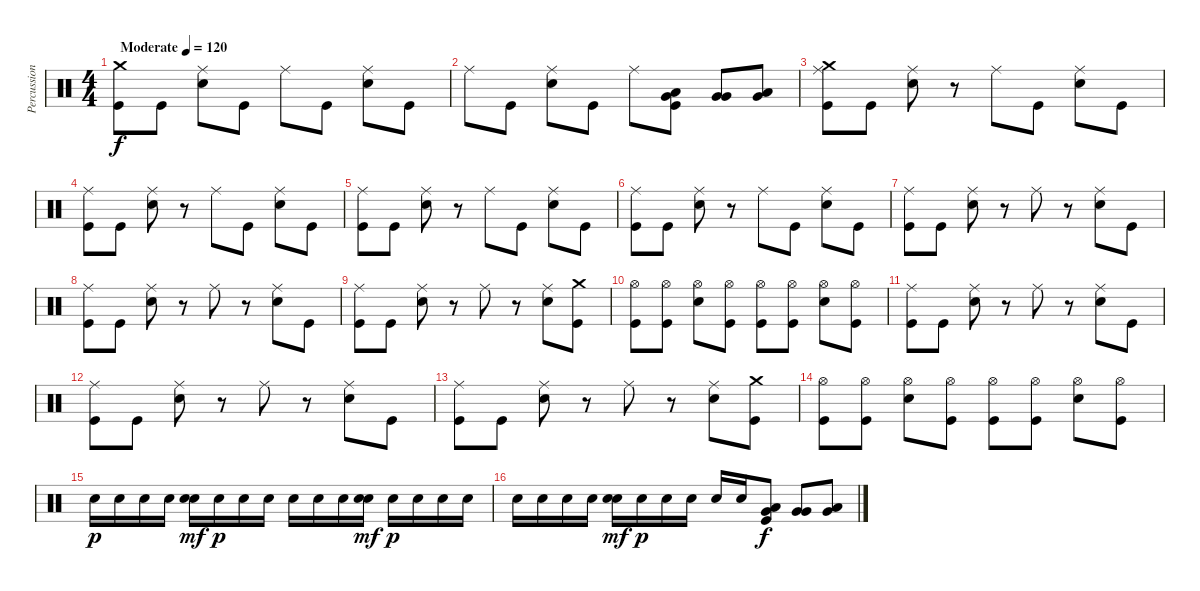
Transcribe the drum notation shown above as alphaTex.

\track ("Percussion" "Percussion") {instrument percussion}
\staff {score}
\articulation defaults
\ts (4 4)
\tempo (120 "Moderate")
\clef neutral
\ks c
("Crash medium (hit)" "Kick (hit)").8{dy f} "Kick (hit)".8 ("Ride (middle)" "Snare (hit) 2").8 "Kick (hit)".8 "Ride (middle)".8 "Kick (hit)".8 ("Ride (middle)" "Snare (hit) 2").8 "Kick (hit)".8 |
"Ride (middle)".8 "Kick (hit)".8 ("Ride (middle)" "Snare (hit) 2").8 "Kick (hit)".8 "Ride (middle)".8 ("Low Tom (hit)" "Very Low Tom (hit)" "Kick (hit)").8 ("Very Low Tom (hit)" "Very Low Tom (hit)").8 ("Very Low Tom (hit)" "Low Floor Tom (hit)").8 |
("Crash medium (hit)" "Ride (middle)" "Kick (hit)").8 "Kick (hit)".8 ("Ride (middle)" "Snare (hit) 2").8 r.8 "Ride (middle)".8 "Kick (hit)".8 ("Ride (middle)" "Snare (hit) 2").8 "Kick (hit)".8 |
("Ride (middle)" "Kick (hit)").8 "Kick (hit)".8 ("Ride (middle)" "Snare (hit) 2").8 r.8 "Ride (middle)".8 "Kick (hit)".8 ("Ride (middle)" "Snare (hit) 2").8 "Kick (hit)".8 |
("Ride (middle)" "Kick (hit)").8 "Kick (hit)".8 ("Ride (middle)" "Snare (hit) 2").8 r.8 "Ride (middle)".8 "Kick (hit)".8 ("Ride (middle)" "Snare (hit) 2").8 "Kick (hit)".8 |
("Ride (middle)" "Kick (hit)").8 "Kick (hit)".8 ("Ride (middle)" "Snare (hit) 2").8 r.8 "Ride (middle)".8 "Kick (hit)".8 ("Ride (middle)" "Snare (hit) 2").8 "Kick (hit)".8 |
("Ride (middle)" "Kick (hit)").8 "Kick (hit)".8 ("Ride (middle)" "Snare (hit) 2").8 r.8 "Ride (middle)".8 r.8 ("Ride (middle)" "Snare (hit) 2").8 "Kick (hit)".8 |
("Ride (middle)" "Kick (hit)").8 "Kick (hit)".8 ("Ride (middle)" "Snare (hit) 2").8 r.8 "Ride (middle)".8 r.8 ("Ride (middle)" "Snare (hit) 2").8 "Kick (hit)".8 |
("Ride (middle)" "Kick (hit)").8 "Kick (hit)".8 ("Ride (middle)" "Snare (hit) 2").8 r.8 "Ride (middle)".8 r.8 ("Ride (middle)" "Snare (hit) 2").8 ("Crash medium (hit)" "Kick (hit)").8 |
("Hi-Hat (open)" "Kick (hit)").8 ("Hi-Hat (open)" "Kick (hit)").8 ("Hi-Hat (open)" "Snare (hit) 2").8 ("Hi-Hat (open)" "Kick (hit)").8 ("Hi-Hat (open)" "Kick (hit)").8 ("Hi-Hat (open)" "Kick (hit)").8 ("Hi-Hat (open)" "Snare (hit) 2").8 ("Hi-Hat (open)" "Kick (hit)").8 |
("Ride (middle)" "Kick (hit)").8 "Kick (hit)".8 ("Ride (middle)" "Snare (hit) 2").8 r.8 "Ride (middle)".8 r.8 ("Ride (middle)" "Snare (hit) 2").8 "Kick (hit)".8 |
("Ride (middle)" "Kick (hit)").8 "Kick (hit)".8 ("Ride (middle)" "Snare (hit) 2").8 r.8 "Ride (middle)".8 r.8 ("Ride (middle)" "Snare (hit) 2").8 "Kick (hit)".8 |
("Ride (middle)" "Kick (hit)").8 "Kick (hit)".8 ("Ride (middle)" "Snare (hit) 2").8 r.8 "Ride (middle)".8 r.8 ("Ride (middle)" "Snare (hit) 2").8 ("Crash medium (hit)" "Kick (hit)").8 |
("Hi-Hat (open)" "Kick (hit)").8 ("Hi-Hat (open)" "Kick (hit)").8 ("Hi-Hat (open)" "Snare (hit) 2").8 ("Hi-Hat (open)" "Kick (hit)").8 ("Hi-Hat (open)" "Kick (hit)").8 ("Hi-Hat (open)" "Kick (hit)").8 ("Hi-Hat (open)" "Snare (hit) 2").8 ("Hi-Hat (open)" "Kick (hit)").8 |
"Snare (hit) 2".16{dy p} "Snare (hit) 2".16 "Snare (hit) 2".16 "Snare (hit) 2".16 ("Snare (hit) 2" "Snare (hit) 2").16{dy mf} "Snare (hit) 2".16{dy p} "Snare (hit) 2".16 "Snare (hit) 2".16 "Snare (hit) 2".16 "Snare (hit) 2".16 "Snare (hit) 2".16 ("Snare (hit) 2" "Snare (hit) 2").16{dy mf} "Snare (hit) 2".16{dy p} "Snare (hit) 2".16 "Snare (hit) 2".16 "Snare (hit) 2".16 |
"Snare (hit) 2".16 "Snare (hit) 2".16 "Snare (hit) 2".16 "Snare (hit) 2".16 ("Snare (hit) 2" "Snare (hit) 2").16{dy mf} "Snare (hit) 2".16{dy p} "Snare (hit) 2".16 "Snare (hit) 2".16 "Snare (hit) 2".16 "Snare (hit) 2".16 ("Low Tom (hit)" "Very Low Tom (hit)" "Kick (hit)").8{dy f} ("Very Low Tom (hit)" "Very Low Tom (hit)").8 ("Very Low Tom (hit)" "Low Floor Tom (hit)").8
